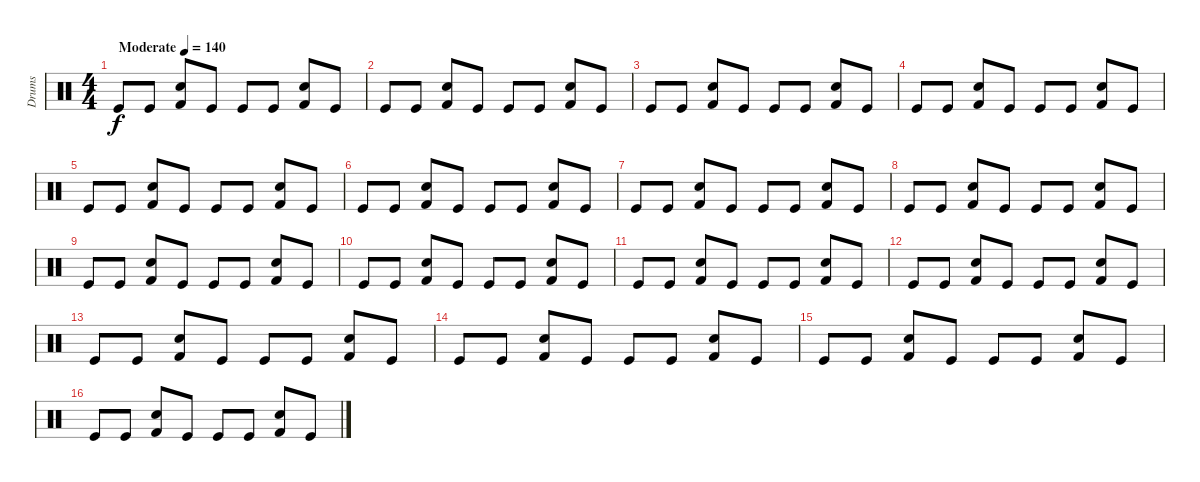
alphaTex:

\track ("Drums" "Drums") {instrument percussion}
\staff {score}
\articulation defaults
\ts (4 4)
\tempo (140 "Moderate")
\clef neutral
\ks c "Kick (hit)".8{dy f} "Kick (hit)".8
("Kick (hit) 2" "Electric Snare (hit)").8 "Kick (hit)".8 "Kick (hit)".8 "Kick (hit)".8 ("Kick (hit) 2" "Electric Snare (hit)").8 "Kick (hit)".8 |
"Kick (hit)".8 "Kick (hit)".8 ("Kick (hit) 2" "Electric Snare (hit)").8 "Kick (hit)".8 "Kick (hit)".8 "Kick (hit)".8 ("Kick (hit) 2" "Electric Snare (hit)").8 "Kick (hit)".8 |
"Kick (hit)".8 "Kick (hit)".8 ("Kick (hit) 2" "Electric Snare (hit)").8 "Kick (hit)".8 "Kick (hit)".8 "Kick (hit)".8 ("Kick (hit) 2" "Electric Snare (hit)").8 "Kick (hit)".8 |
"Kick (hit)".8 "Kick (hit)".8 ("Kick (hit) 2" "Electric Snare (hit)").8 "Kick (hit)".8 "Kick (hit)".8 "Kick (hit)".8 ("Kick (hit) 2" "Electric Snare (hit)").8 "Kick (hit)".8 |
"Kick (hit)".8 "Kick (hit)".8 ("Kick (hit) 2" "Electric Snare (hit)").8 "Kick (hit)".8 "Kick (hit)".8 "Kick (hit)".8 ("Kick (hit) 2" "Electric Snare (hit)").8 "Kick (hit)".8 |
"Kick (hit)".8 "Kick (hit)".8 ("Kick (hit) 2" "Electric Snare (hit)").8 "Kick (hit)".8 "Kick (hit)".8 "Kick (hit)".8 ("Kick (hit) 2" "Electric Snare (hit)").8 "Kick (hit)".8 |
"Kick (hit)".8 "Kick (hit)".8 ("Kick (hit) 2" "Electric Snare (hit)").8 "Kick (hit)".8 "Kick (hit)".8 "Kick (hit)".8 ("Kick (hit) 2" "Electric Snare (hit)").8 "Kick (hit)".8 |
"Kick (hit)".8 "Kick (hit)".8 ("Kick (hit) 2" "Electric Snare (hit)").8 "Kick (hit)".8 "Kick (hit)".8 "Kick (hit)".8 ("Kick (hit) 2" "Electric Snare (hit)").8 "Kick (hit)".8 |
"Kick (hit)".8 "Kick (hit)".8 ("Kick (hit) 2" "Electric Snare (hit)").8 "Kick (hit)".8 "Kick (hit)".8 "Kick (hit)".8 ("Kick (hit) 2" "Electric Snare (hit)").8 "Kick (hit)".8 |
"Kick (hit)".8 "Kick (hit)".8 ("Kick (hit) 2" "Electric Snare (hit)").8 "Kick (hit)".8 "Kick (hit)".8 "Kick (hit)".8 ("Kick (hit) 2" "Electric Snare (hit)").8 "Kick (hit)".8 |
"Kick (hit)".8 "Kick (hit)".8 ("Kick (hit) 2" "Electric Snare (hit)").8 "Kick (hit)".8 "Kick (hit)".8 "Kick (hit)".8 ("Kick (hit) 2" "Electric Snare (hit)").8 "Kick (hit)".8 |
"Kick (hit)".8 "Kick (hit)".8 ("Kick (hit) 2" "Electric Snare (hit)").8 "Kick (hit)".8 "Kick (hit)".8 "Kick (hit)".8 ("Kick (hit) 2" "Electric Snare (hit)").8 "Kick (hit)".8 |
"Kick (hit)".8 "Kick (hit)".8 ("Kick (hit) 2" "Electric Snare (hit)").8 "Kick (hit)".8 "Kick (hit)".8 "Kick (hit)".8 ("Kick (hit) 2" "Electric Snare (hit)").8 "Kick (hit)".8 |
"Kick (hit)".8 "Kick (hit)".8 ("Kick (hit) 2" "Electric Snare (hit)").8 "Kick (hit)".8 "Kick (hit)".8 "Kick (hit)".8 ("Kick (hit) 2" "Electric Snare (hit)").8 "Kick (hit)".8 |
"Kick (hit)".8 "Kick (hit)".8 ("Kick (hit) 2" "Electric Snare (hit)").8 "Kick (hit)".8 "Kick (hit)".8 "Kick (hit)".8 ("Kick (hit) 2" "Electric Snare (hit)").8 "Kick (hit)".8 |
"Kick (hit)".8 "Kick (hit)".8 ("Kick (hit) 2" "Electric Snare (hit)").8 "Kick (hit)".8 "Kick (hit)".8 "Kick (hit)".8 ("Kick (hit) 2" "Electric Snare (hit)").8 "Kick (hit)".8
